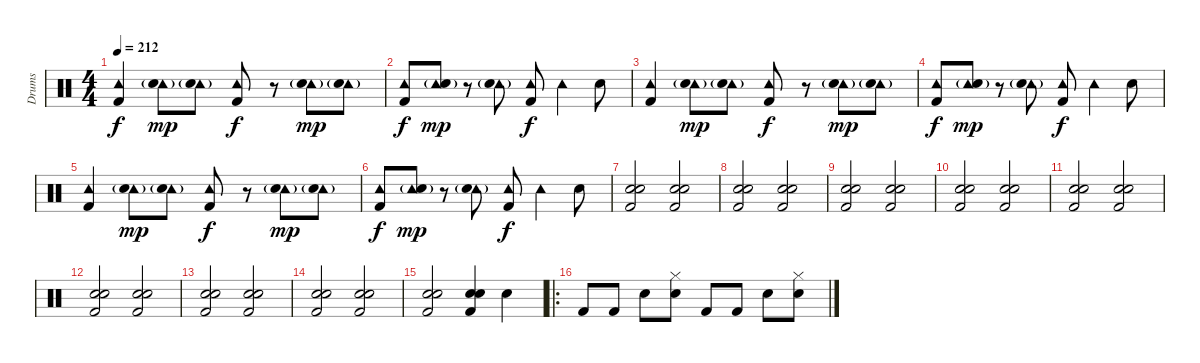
\track ("Drums" "Drums") {instrument percussion}
\staff {score}
\articulation defaults
\ts (4 4)
\tempo 212
\clef neutral
\ks c
("Tambourine (hit)" "Kick (hit) 2").4{dy f} ("Tambourine (hit)" "Electric Snare (hit)"{g}).8{dy mp} ("Tambourine (hit)" "Electric Snare (hit)"{g}).8 ("Tambourine (hit)" "Kick (hit) 2").8{dy f} r.8 ("Tambourine (hit)" "Electric Snare (hit)"{g}).8{dy mp} ("Tambourine (hit)" "Electric Snare (hit)"{g}).8 |
("Tambourine (hit)" "Kick (hit) 2").8{dy f} ("Tambourine (hit)" "Electric Snare (hit)"{g}).8{dy mp} r.8 ("Tambourine (hit)" "Electric Snare (hit)"{g}).8 ("Tambourine (hit)" "Kick (hit) 2").8{dy f} "Tambourine (hit)".4 "Electric Snare (hit)".8 |
("Tambourine (hit)" "Kick (hit) 2").4 ("Tambourine (hit)" "Electric Snare (hit)"{g}).8{dy mp} ("Tambourine (hit)" "Electric Snare (hit)"{g}).8 ("Tambourine (hit)" "Kick (hit) 2").8{dy f} r.8 ("Tambourine (hit)" "Electric Snare (hit)"{g}).8{dy mp} ("Tambourine (hit)" "Electric Snare (hit)"{g}).8 |
("Tambourine (hit)" "Kick (hit) 2").8{dy f} ("Tambourine (hit)" "Electric Snare (hit)"{g}).8{dy mp} r.8 ("Tambourine (hit)" "Electric Snare (hit)"{g}).8 ("Tambourine (hit)" "Kick (hit) 2").8{dy f} "Tambourine (hit)".4 "Electric Snare (hit)".8 |
("Tambourine (hit)" "Kick (hit) 2").4 ("Tambourine (hit)" "Electric Snare (hit)"{g}).8{dy mp} ("Tambourine (hit)" "Electric Snare (hit)"{g}).8 ("Tambourine (hit)" "Kick (hit) 2").8{dy f} r.8 ("Tambourine (hit)" "Electric Snare (hit)"{g}).8{dy mp} ("Tambourine (hit)" "Electric Snare (hit)"{g}).8 |
("Tambourine (hit)" "Kick (hit) 2").8{dy f} ("Tambourine (hit)" "Electric Snare (hit)"{g}).8{dy mp} r.8 ("Tambourine (hit)" "Electric Snare (hit)"{g}).8 ("Tambourine (hit)" "Kick (hit) 2").8{dy f} "Tambourine (hit)".4 "Electric Snare (hit)".8 |
("Electric Snare (hit)" "Electric Snare (hit)" "Kick (hit) 2").2 ("Electric Snare (hit)" "Electric Snare (hit)" "Kick (hit) 2").2 |
("Electric Snare (hit)" "Electric Snare (hit)" "Kick (hit) 2").2 ("Electric Snare (hit)" "Electric Snare (hit)" "Kick (hit) 2").2 |
("Electric Snare (hit)" "Electric Snare (hit)" "Kick (hit) 2").2 ("Electric Snare (hit)" "Electric Snare (hit)" "Kick (hit) 2").2 |
("Electric Snare (hit)" "Electric Snare (hit)" "Kick (hit) 2").2 ("Electric Snare (hit)" "Electric Snare (hit)" "Kick (hit) 2").2 |
("Electric Snare (hit)" "Electric Snare (hit)" "Kick (hit) 2").2 ("Electric Snare (hit)" "Electric Snare (hit)" "Kick (hit) 2").2 |
("Electric Snare (hit)" "Electric Snare (hit)" "Kick (hit) 2").2 ("Electric Snare (hit)" "Electric Snare (hit)" "Kick (hit) 2").2 |
("Electric Snare (hit)" "Electric Snare (hit)" "Kick (hit) 2").2 ("Electric Snare (hit)" "Electric Snare (hit)" "Kick (hit) 2").2 |
("Electric Snare (hit)" "Electric Snare (hit)" "Kick (hit) 2").2 ("Electric Snare (hit)" "Electric Snare (hit)" "Kick (hit) 2").2 |
("Electric Snare (hit)" "Electric Snare (hit)" "Kick (hit) 2").2 ("Electric Snare (hit)" "Electric Snare (hit)" "Kick (hit) 2").4 "Electric Snare (hit)".4 |
\ro "Kick (hit) 2".8 "Kick (hit) 2".8 "Electric Snare (hit)".8
("Hi-Hat (closed)" "Electric Snare (hit)").8 "Kick (hit) 2".8 "Kick (hit) 2".8 "Electric Snare (hit)".8 ("Hi-Hat (closed)" "Electric Snare (hit)").8
